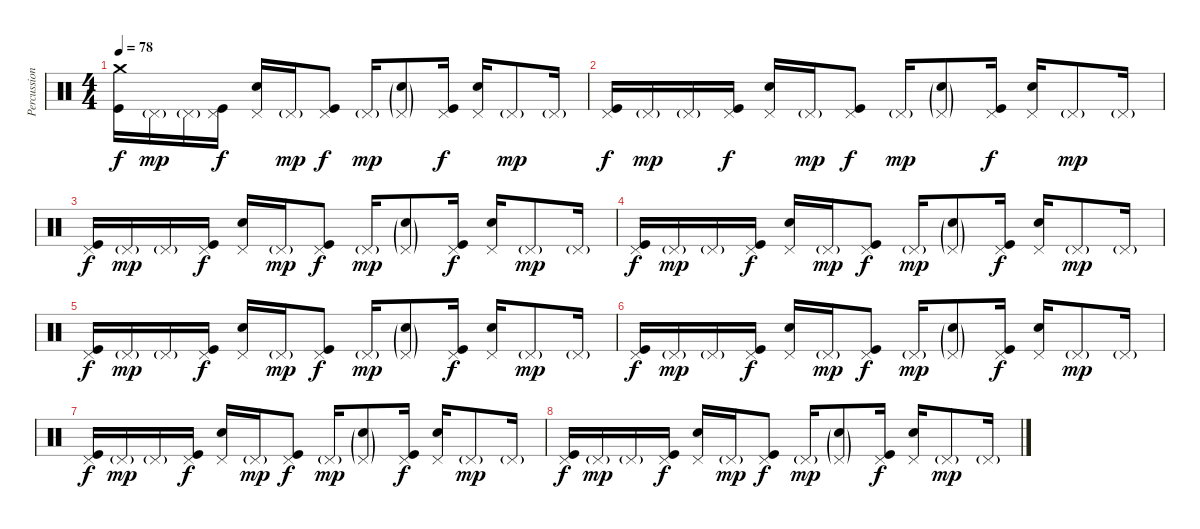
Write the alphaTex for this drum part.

\track ("Percussion" "Percussion") {instrument percussion}
\staff {score}
\articulation defaults
\ts (4 4)
\tempo 78
\clef neutral
\ks c
("Crash medium (hit)" "Kick (hit)").16{dy f} "Pedal Hi-Hat (hit)"{g}.16{dy mp} "Pedal Hi-Hat (hit)"{g}.16 ("Pedal Hi-Hat (hit)" "Kick (hit)").16{dy f} ("Pedal Hi-Hat (hit)" "Snare (hit) 2").16 "Pedal Hi-Hat (hit)"{g}.16{dy mp} ("Pedal Hi-Hat (hit)" "Kick (hit)").8{dy f} "Pedal Hi-Hat (hit)"{g}.16{dy mp} ("Pedal Hi-Hat (hit)"{g} "Snare (hit) 2"{g}).8 ("Pedal Hi-Hat (hit)" "Kick (hit)").16{dy f} ("Pedal Hi-Hat (hit)" "Snare (hit) 2").16 "Pedal Hi-Hat (hit)"{g}.8{dy mp} "Pedal Hi-Hat (hit)"{g}.16 |
("Pedal Hi-Hat (hit)" "Kick (hit)").16{dy f} "Pedal Hi-Hat (hit)"{g}.16{dy mp} "Pedal Hi-Hat (hit)"{g}.16 ("Pedal Hi-Hat (hit)" "Kick (hit)").16{dy f} ("Pedal Hi-Hat (hit)" "Snare (hit) 2").16 "Pedal Hi-Hat (hit)"{g}.16{dy mp} ("Pedal Hi-Hat (hit)" "Kick (hit)").8{dy f} "Pedal Hi-Hat (hit)"{g}.16{dy mp} ("Pedal Hi-Hat (hit)"{g} "Snare (hit) 2"{g}).8 ("Pedal Hi-Hat (hit)" "Kick (hit)").16{dy f} ("Pedal Hi-Hat (hit)" "Snare (hit) 2").16 "Pedal Hi-Hat (hit)"{g}.8{dy mp} "Pedal Hi-Hat (hit)"{g}.16 |
("Pedal Hi-Hat (hit)" "Kick (hit)").16{dy f} "Pedal Hi-Hat (hit)"{g}.16{dy mp} "Pedal Hi-Hat (hit)"{g}.16 ("Pedal Hi-Hat (hit)" "Kick (hit)").16{dy f} ("Pedal Hi-Hat (hit)" "Snare (hit) 2").16 "Pedal Hi-Hat (hit)"{g}.16{dy mp} ("Pedal Hi-Hat (hit)" "Kick (hit)").8{dy f} "Pedal Hi-Hat (hit)"{g}.16{dy mp} ("Pedal Hi-Hat (hit)"{g} "Snare (hit) 2"{g}).8 ("Pedal Hi-Hat (hit)" "Kick (hit)").16{dy f} ("Pedal Hi-Hat (hit)" "Snare (hit) 2").16 "Pedal Hi-Hat (hit)"{g}.8{dy mp} "Pedal Hi-Hat (hit)"{g}.16 |
("Pedal Hi-Hat (hit)" "Kick (hit)").16{dy f} "Pedal Hi-Hat (hit)"{g}.16{dy mp} "Pedal Hi-Hat (hit)"{g}.16 ("Pedal Hi-Hat (hit)" "Kick (hit)").16{dy f} ("Pedal Hi-Hat (hit)" "Snare (hit) 2").16 "Pedal Hi-Hat (hit)"{g}.16{dy mp} ("Pedal Hi-Hat (hit)" "Kick (hit)").8{dy f} "Pedal Hi-Hat (hit)"{g}.16{dy mp} ("Pedal Hi-Hat (hit)"{g} "Snare (hit) 2"{g}).8 ("Pedal Hi-Hat (hit)" "Kick (hit)").16{dy f} ("Pedal Hi-Hat (hit)" "Snare (hit) 2").16 "Pedal Hi-Hat (hit)"{g}.8{dy mp} "Pedal Hi-Hat (hit)"{g}.16 |
("Pedal Hi-Hat (hit)" "Kick (hit)").16{dy f} "Pedal Hi-Hat (hit)"{g}.16{dy mp} "Pedal Hi-Hat (hit)"{g}.16 ("Pedal Hi-Hat (hit)" "Kick (hit)").16{dy f} ("Pedal Hi-Hat (hit)" "Snare (hit) 2").16 "Pedal Hi-Hat (hit)"{g}.16{dy mp} ("Pedal Hi-Hat (hit)" "Kick (hit)").8{dy f} "Pedal Hi-Hat (hit)"{g}.16{dy mp} ("Pedal Hi-Hat (hit)"{g} "Snare (hit) 2"{g}).8 ("Pedal Hi-Hat (hit)" "Kick (hit)").16{dy f} ("Pedal Hi-Hat (hit)" "Snare (hit) 2").16 "Pedal Hi-Hat (hit)"{g}.8{dy mp} "Pedal Hi-Hat (hit)"{g}.16 |
("Pedal Hi-Hat (hit)" "Kick (hit)").16{dy f} "Pedal Hi-Hat (hit)"{g}.16{dy mp} "Pedal Hi-Hat (hit)"{g}.16 ("Pedal Hi-Hat (hit)" "Kick (hit)").16{dy f} ("Pedal Hi-Hat (hit)" "Snare (hit) 2").16 "Pedal Hi-Hat (hit)"{g}.16{dy mp} ("Pedal Hi-Hat (hit)" "Kick (hit)").8{dy f} "Pedal Hi-Hat (hit)"{g}.16{dy mp} ("Pedal Hi-Hat (hit)"{g} "Snare (hit) 2"{g}).8 ("Pedal Hi-Hat (hit)" "Kick (hit)").16{dy f} ("Pedal Hi-Hat (hit)" "Snare (hit) 2").16 "Pedal Hi-Hat (hit)"{g}.8{dy mp} "Pedal Hi-Hat (hit)"{g}.16 |
("Pedal Hi-Hat (hit)" "Kick (hit)").16{dy f} "Pedal Hi-Hat (hit)"{g}.16{dy mp} "Pedal Hi-Hat (hit)"{g}.16 ("Pedal Hi-Hat (hit)" "Kick (hit)").16{dy f} ("Pedal Hi-Hat (hit)" "Snare (hit) 2").16 "Pedal Hi-Hat (hit)"{g}.16{dy mp} ("Pedal Hi-Hat (hit)" "Kick (hit)").8{dy f} "Pedal Hi-Hat (hit)"{g}.16{dy mp} ("Pedal Hi-Hat (hit)"{g} "Snare (hit) 2"{g}).8 ("Pedal Hi-Hat (hit)" "Kick (hit)").16{dy f} ("Pedal Hi-Hat (hit)" "Snare (hit) 2").16 "Pedal Hi-Hat (hit)"{g}.8{dy mp} "Pedal Hi-Hat (hit)"{g}.16 |
("Pedal Hi-Hat (hit)" "Kick (hit)").16{dy f} "Pedal Hi-Hat (hit)"{g}.16{dy mp} "Pedal Hi-Hat (hit)"{g}.16 ("Pedal Hi-Hat (hit)" "Kick (hit)").16{dy f} ("Pedal Hi-Hat (hit)" "Snare (hit) 2").16 "Pedal Hi-Hat (hit)"{g}.16{dy mp} ("Pedal Hi-Hat (hit)" "Kick (hit)").8{dy f} "Pedal Hi-Hat (hit)"{g}.16{dy mp} ("Pedal Hi-Hat (hit)"{g} "Snare (hit) 2"{g}).8 ("Pedal Hi-Hat (hit)" "Kick (hit)").16{dy f} ("Pedal Hi-Hat (hit)" "Snare (hit) 2").16 "Pedal Hi-Hat (hit)"{g}.8{dy mp} "Pedal Hi-Hat (hit)"{g}.16
